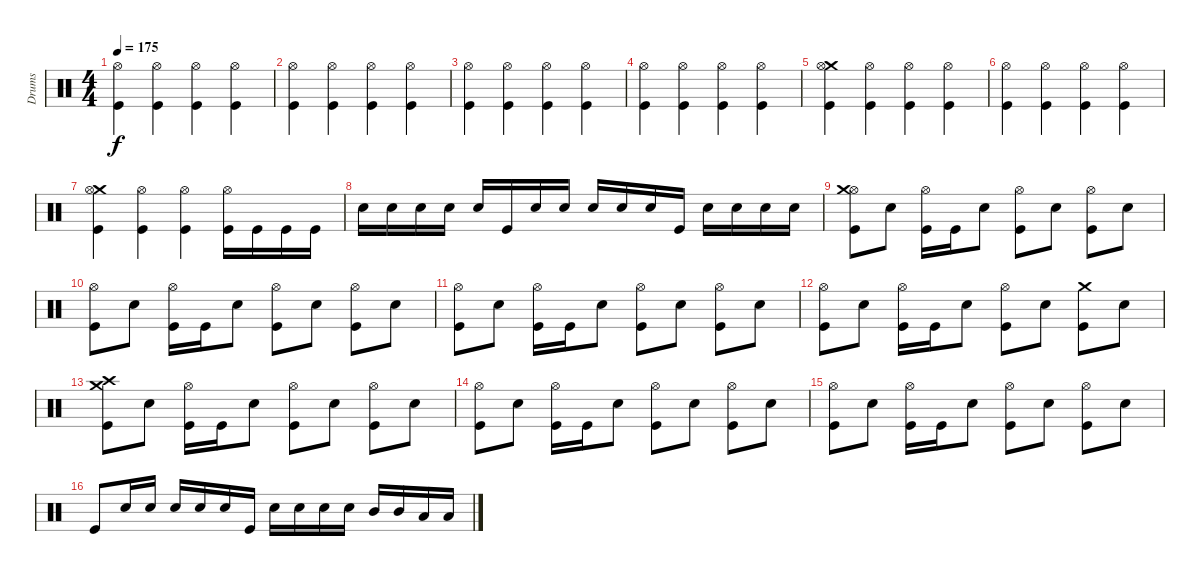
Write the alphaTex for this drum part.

\track ("Drums" "Drums") {instrument percussion}
\staff {score}
\articulation defaults
\ts (4 4)
\tempo 175
\clef neutral
\ks c
("Hi-Hat (open)" "Kick (hit)").4{dy f} ("Hi-Hat (open)" "Kick (hit)").4 ("Hi-Hat (open)" "Kick (hit)").4 ("Hi-Hat (open)" "Kick (hit)").4 |
("Hi-Hat (open)" "Kick (hit)").4 ("Hi-Hat (open)" "Kick (hit)").4 ("Hi-Hat (open)" "Kick (hit)").4 ("Hi-Hat (open)" "Kick (hit)").4 |
("Hi-Hat (open)" "Kick (hit)").4 ("Hi-Hat (open)" "Kick (hit)").4 ("Hi-Hat (open)" "Kick (hit)").4 ("Hi-Hat (open)" "Kick (hit)").4 |
("Hi-Hat (open)" "Kick (hit)").4 ("Hi-Hat (open)" "Kick (hit)").4 ("Hi-Hat (open)" "Kick (hit)").4 ("Hi-Hat (open)" "Kick (hit)").4 |
("Crash medium (hit)" "Hi-Hat (open)" "Kick (hit)").4 ("Hi-Hat (open)" "Kick (hit)").4 ("Hi-Hat (open)" "Kick (hit)").4 ("Hi-Hat (open)" "Kick (hit)").4 |
("Hi-Hat (open)" "Kick (hit)").4 ("Hi-Hat (open)" "Kick (hit)").4 ("Hi-Hat (open)" "Kick (hit)").4 ("Hi-Hat (open)" "Kick (hit)").4 |
("Crash medium (hit)" "Hi-Hat (open)" "Kick (hit)").4 ("Hi-Hat (open)" "Kick (hit)").4 ("Hi-Hat (open)" "Kick (hit)").4 ("Hi-Hat (open)" "Kick (hit)").16 "Kick (hit)".16 "Kick (hit)".16 "Kick (hit)".16 |
"Snare (hit) 2".16 "Snare (hit) 2".16 "Snare (hit) 2".16 "Snare (hit) 2".16 "Snare (hit) 2".16 "Kick (hit)".16 "Snare (hit) 2".16 "Snare (hit) 2".16 "Snare (hit) 2".16 "Snare (hit) 2".16 "Snare (hit) 2".16 "Kick (hit)".16 "Snare (hit) 2".16 "Snare (hit) 2".16 "Snare (hit) 2".16 "Snare (hit) 2".16 |
("Hi-Hat (open)" "Crash medium (hit)" "Kick (hit)").8 "Snare (hit) 2".8 ("Hi-Hat (open)" "Kick (hit)").16 "Kick (hit)".16 "Snare (hit) 2".8 ("Hi-Hat (open)" "Kick (hit)").8 "Snare (hit) 2".8 ("Hi-Hat (open)" "Kick (hit)").8 "Snare (hit) 2".8 |
("Hi-Hat (open)" "Kick (hit)").8 "Snare (hit) 2".8 ("Hi-Hat (open)" "Kick (hit)").16 "Kick (hit)".16 "Snare (hit) 2".8 ("Hi-Hat (open)" "Kick (hit)").8 "Snare (hit) 2".8 ("Hi-Hat (open)" "Kick (hit)").8 "Snare (hit) 2".8 |
("Hi-Hat (open)" "Kick (hit)").8 "Snare (hit) 2".8 ("Hi-Hat (open)" "Kick (hit)").16 "Kick (hit)".16 "Snare (hit) 2".8 ("Hi-Hat (open)" "Kick (hit)").8 "Snare (hit) 2".8 ("Hi-Hat (open)" "Kick (hit)").8 "Snare (hit) 2".8 |
("Hi-Hat (open)" "Kick (hit)").8 "Snare (hit) 2".8 ("Hi-Hat (open)" "Kick (hit)").16 "Kick (hit)".16 "Snare (hit) 2".8 ("Hi-Hat (open)" "Kick (hit)").8 "Snare (hit) 2".8 ("Crash medium (hit)" "Kick (hit)").8 "Snare (hit) 2".8 |
("Crash medium (hit)" "Crash high (hit)" "Kick (hit)").8 "Snare (hit) 2".8 ("Hi-Hat (open)" "Kick (hit)").16 "Kick (hit)".16 "Snare (hit) 2".8 ("Hi-Hat (open)" "Kick (hit)").8 "Snare (hit) 2".8 ("Hi-Hat (open)" "Kick (hit)").8 "Snare (hit) 2".8 |
("Hi-Hat (open)" "Kick (hit)").8 "Snare (hit) 2".8 ("Hi-Hat (open)" "Kick (hit)").16 "Kick (hit)".16 "Snare (hit) 2".8 ("Hi-Hat (open)" "Kick (hit)").8 "Snare (hit) 2".8 ("Hi-Hat (open)" "Kick (hit)").8 "Snare (hit) 2".8 |
("Hi-Hat (open)" "Kick (hit)").8 "Snare (hit) 2".8 ("Hi-Hat (open)" "Kick (hit)").16 "Kick (hit)".16 "Snare (hit) 2".8 ("Hi-Hat (open)" "Kick (hit)").8 "Snare (hit) 2".8 ("Hi-Hat (open)" "Kick (hit)").8 "Snare (hit) 2".8 |
"Kick (hit)".8 "Snare (hit) 2".16 "Snare (hit) 2".16 "Snare (hit) 2".16 "Snare (hit) 2".16 "Snare (hit) 2".16 "Kick (hit)".16 "Snare (hit) 2".16 "Snare (hit) 2".16 "Snare (hit) 2".16 "Snare (hit) 2".16 "Mid Tom (hit)".16 "Mid Tom (hit)".16 "Low Tom (hit)".16 "Low Tom (hit)".16
